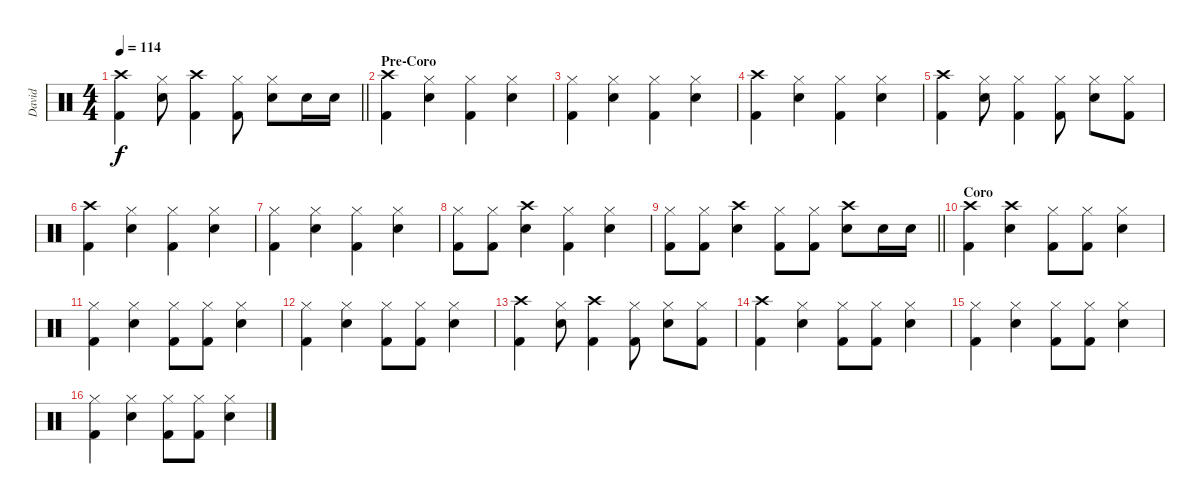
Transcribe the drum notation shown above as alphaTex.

\track ("David" "David") {instrument percussion}
\staff {score}
\articulation defaults
\ts (4 4)
\tempo 114
\clef neutral
\barLineRight lightlight
\ks c
("Crash high (hit)" "Kick (hit) 2").4{dy f} ("Hi-Hat (closed)" "Snare (hit) 2").8 ("Crash high (hit)" "Kick (hit) 2").4 ("Hi-Hat (closed)" "Kick (hit) 2").8 ("Hi-Hat (closed)" "Snare (hit) 2").8 "Snare (hit) 2".16 "Snare (hit) 2".16 |
\section ("" "Pre-Coro")
("Crash high (hit)" "Kick (hit) 2").4 ("Hi-Hat (closed)" "Snare (hit) 2").4 ("Hi-Hat (closed)" "Kick (hit) 2").4 ("Hi-Hat (closed)" "Snare (hit) 2").4 |
("Hi-Hat (closed)" "Kick (hit) 2").4 ("Hi-Hat (closed)" "Snare (hit) 2").4 ("Hi-Hat (closed)" "Kick (hit) 2").4 ("Hi-Hat (closed)" "Snare (hit) 2").4 |
("Crash high (hit)" "Kick (hit) 2").4 ("Hi-Hat (closed)" "Snare (hit) 2").4 ("Hi-Hat (closed)" "Kick (hit) 2").4 ("Hi-Hat (closed)" "Snare (hit) 2").4 |
("Crash high (hit)" "Kick (hit) 2").4 ("Hi-Hat (closed)" "Snare (hit) 2").8 ("Hi-Hat (closed)" "Kick (hit) 2").4 ("Hi-Hat (closed)" "Kick (hit) 2").8 ("Hi-Hat (closed)" "Snare (hit) 2").8 ("Hi-Hat (closed)" "Kick (hit) 2").8 |
("Crash high (hit)" "Kick (hit) 2").4 ("Hi-Hat (closed)" "Snare (hit) 2").4 ("Hi-Hat (closed)" "Kick (hit) 2").4 ("Hi-Hat (closed)" "Snare (hit) 2").4 |
("Hi-Hat (closed)" "Kick (hit) 2").4 ("Hi-Hat (closed)" "Snare (hit) 2").4 ("Hi-Hat (closed)" "Kick (hit) 2").4 ("Hi-Hat (closed)" "Snare (hit) 2").4 |
("Hi-Hat (closed)" "Kick (hit) 2").8 ("Hi-Hat (closed)" "Kick (hit) 2").8 ("Crash high (hit)" "Snare (hit) 2").4 ("Hi-Hat (closed)" "Kick (hit) 2").4 ("Hi-Hat (closed)" "Snare (hit) 2").4 |
\barLineRight lightlight
("Hi-Hat (closed)" "Kick (hit) 2").8 ("Hi-Hat (closed)" "Kick (hit) 2").8 ("Crash high (hit)" "Snare (hit) 2").4 ("Hi-Hat (closed)" "Kick (hit) 2").8 ("Hi-Hat (closed)" "Kick (hit) 2").8 ("Crash high (hit)" "Snare (hit) 2").8 "Snare (hit) 2".16 "Snare (hit) 2".16 |
\section ("" "Coro")
("Crash high (hit)" "Kick (hit) 2").4 ("Crash high (hit)" "Snare (hit) 2").4 ("Hi-Hat (closed)" "Kick (hit) 2").8 ("Hi-Hat (closed)" "Kick (hit) 2").8 ("Hi-Hat (closed)" "Snare (hit) 2").4 |
("Hi-Hat (closed)" "Kick (hit) 2").4 ("Hi-Hat (closed)" "Snare (hit) 2").4 ("Hi-Hat (closed)" "Kick (hit) 2").8 ("Hi-Hat (closed)" "Kick (hit) 2").8 ("Hi-Hat (closed)" "Snare (hit) 2").4 |
("Hi-Hat (closed)" "Kick (hit) 2").4 ("Hi-Hat (closed)" "Snare (hit) 2").4 ("Hi-Hat (closed)" "Kick (hit) 2").8 ("Hi-Hat (closed)" "Kick (hit) 2").8 ("Hi-Hat (closed)" "Snare (hit) 2").4 |
("Crash high (hit)" "Kick (hit) 2").4 ("Hi-Hat (closed)" "Snare (hit) 2").8 ("Crash high (hit)" "Kick (hit) 2").4 ("Hi-Hat (closed)" "Kick (hit) 2").8 ("Hi-Hat (closed)" "Snare (hit) 2").8 ("Hi-Hat (closed)" "Kick (hit) 2").8 |
("Crash high (hit)" "Kick (hit) 2").4 ("Hi-Hat (closed)" "Snare (hit) 2").4 ("Hi-Hat (closed)" "Kick (hit) 2").8 ("Hi-Hat (closed)" "Kick (hit) 2").8 ("Hi-Hat (closed)" "Snare (hit) 2").4 |
("Hi-Hat (closed)" "Kick (hit) 2").4 ("Hi-Hat (closed)" "Snare (hit) 2").4 ("Hi-Hat (closed)" "Kick (hit) 2").8 ("Hi-Hat (closed)" "Kick (hit) 2").8 ("Hi-Hat (closed)" "Snare (hit) 2").4 |
("Hi-Hat (closed)" "Kick (hit) 2").4 ("Hi-Hat (closed)" "Snare (hit) 2").4 ("Hi-Hat (closed)" "Kick (hit) 2").8 ("Hi-Hat (closed)" "Kick (hit) 2").8 ("Hi-Hat (closed)" "Snare (hit) 2").4
